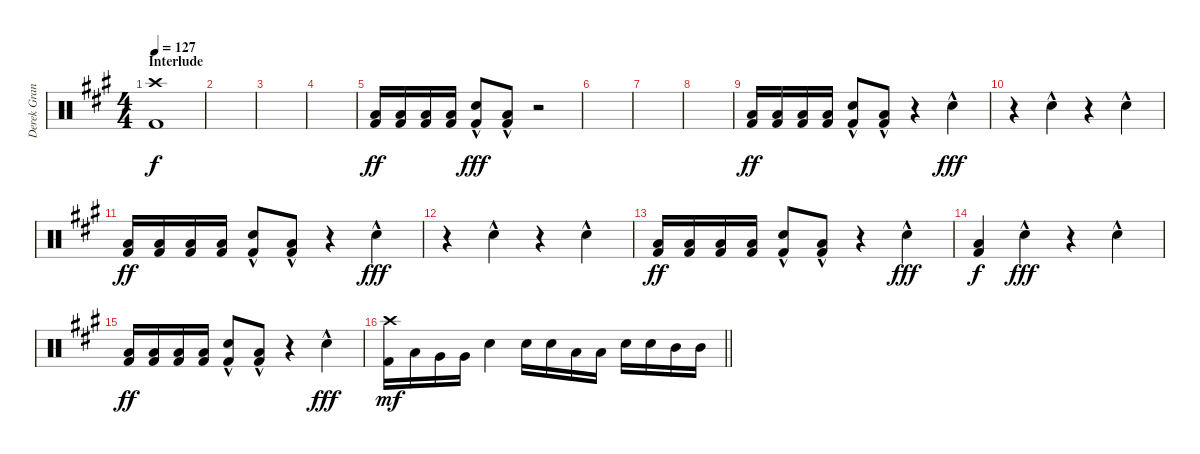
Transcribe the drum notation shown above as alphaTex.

\track ("Derek Grant - Drums" "Derek Gran") {instrument percussion}
\staff {score}
\articulation defaults
\ts (4 4)
\section ("" "Interlude")
\tempo 127
\clef neutral
\ks a
("Crash high (hit)" "Kick (hit) 2").1{dy f} |
|
|
|
("Low Floor Tom (hit)" "Kick (hit) 2").16{dy ff} ("Low Tom (hit)" "Kick (hit) 2").16 ("Low Floor Tom (hit)" "Kick (hit) 2").16 ("Low Floor Tom (hit)" "Kick (hit) 2").16 ("Snare (hit) 2"{hac} "Kick (hit) 2").8{dy fff} ("Low Floor Tom (hit)"{hac} "Kick (hit) 2").8 r.2 |
|
|
|
("Low Floor Tom (hit)" "Kick (hit) 2").16{dy ff} ("Low Tom (hit)" "Kick (hit) 2").16 ("Low Floor Tom (hit)" "Kick (hit) 2").16 ("Low Floor Tom (hit)" "Kick (hit) 2").16 ("Snare (hit) 2"{hac} "Kick (hit) 2").8 ("Low Floor Tom (hit)"{hac} "Kick (hit) 2").8 r.4 "Snare (hit) 2"{hac}.4{dy fff} |
r.4 "Snare (hit) 2"{hac}.4 r.4 "Snare (hit) 2"{hac}.4 |
("Low Floor Tom (hit)" "Kick (hit) 2").16{dy ff} ("Low Tom (hit)" "Kick (hit) 2").16 ("Low Floor Tom (hit)" "Kick (hit) 2").16 ("Low Floor Tom (hit)" "Kick (hit) 2").16 ("Snare (hit) 2"{hac} "Kick (hit) 2").8 ("Low Floor Tom (hit)"{hac} "Kick (hit) 2").8 r.4 "Snare (hit) 2"{hac}.4{dy fff} |
r.4 "Snare (hit) 2"{hac}.4 r.4 "Snare (hit) 2"{hac}.4 |
("Low Floor Tom (hit)" "Kick (hit) 2").16{dy ff} ("Low Tom (hit)" "Kick (hit) 2").16 ("Low Floor Tom (hit)" "Kick (hit) 2").16 ("Low Floor Tom (hit)" "Kick (hit) 2").16 ("Snare (hit) 2"{hac} "Kick (hit) 2").8 ("Low Floor Tom (hit)"{hac} "Kick (hit) 2").8 r.4 "Snare (hit) 2"{hac}.4{dy fff} |
("Kick (hit) 2" "Low Floor Tom (hit)").4{dy f} "Snare (hit) 2"{hac}.4{dy fff} r.4 "Snare (hit) 2"{hac}.4 |
("Low Floor Tom (hit)" "Kick (hit) 2").16{dy ff} ("Low Tom (hit)" "Kick (hit) 2").16 ("Low Floor Tom (hit)" "Kick (hit) 2").16 ("Low Floor Tom (hit)" "Kick (hit) 2").16 ("Snare (hit) 2"{hac} "Kick (hit) 2").8 ("Low Floor Tom (hit)"{hac} "Kick (hit) 2").8 r.4 "Snare (hit) 2"{hac}.4{dy fff} |
\barLineRight lightlight
("Crash high (hit)" "Kick (hit) 2").16{dy mf} "Low Tom (hit)".16 "Very Low Tom (hit)".16 "Very Low Tom (hit)".16 "Snare (hit) 2".4 "Snare (hit) 2".16 "Snare (hit) 2".16 "Low Tom (hit)".16 "Low Tom (hit)".16 "Electric Snare (hit)".16 "Electric Snare (hit)".16 "Mid Tom (hit)".16 "Mid Tom (hit)".16
